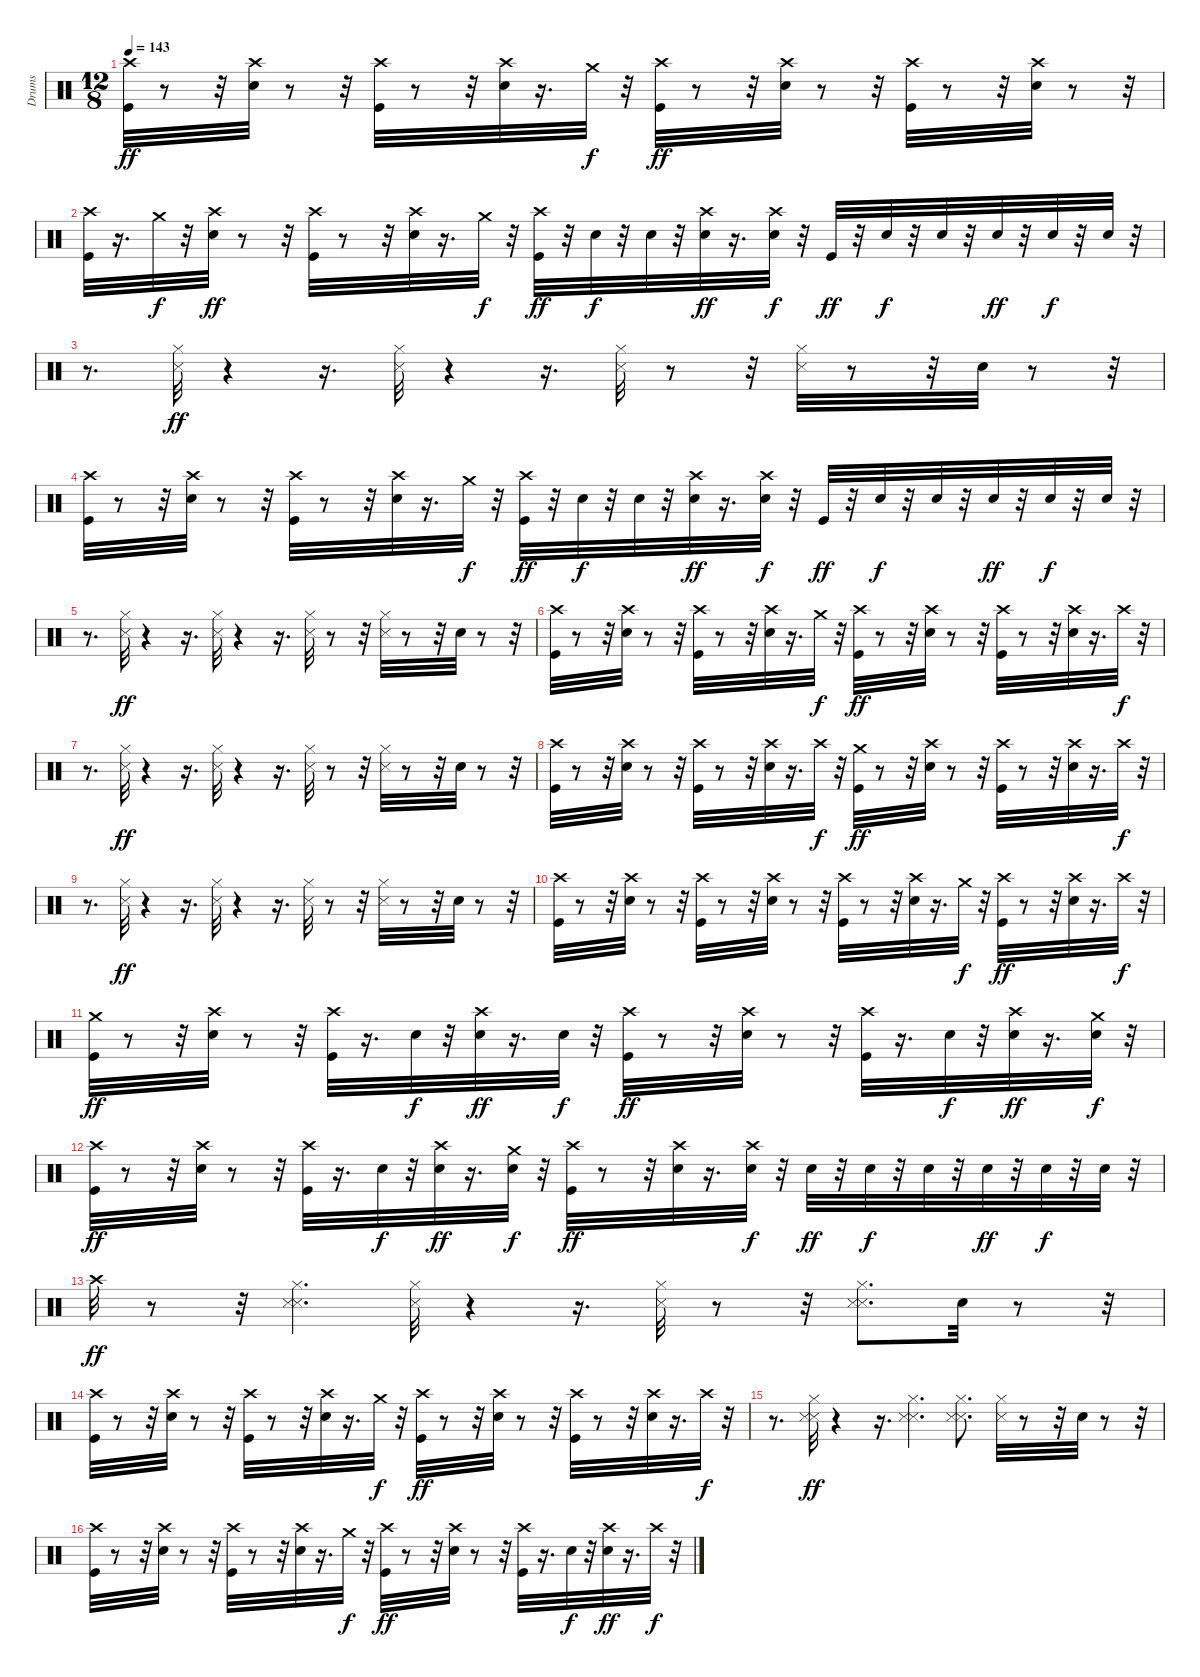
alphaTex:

\track ("Drums" "Drums") {instrument percussion}
\staff {score}
\articulation defaults
\ts (12 8)
\tempo 143
\clef neutral
\ks c
("Crash high (hit)" "Kick (hit)").32{dy ff} r.8 r.32 ("Crash high (hit)" "Snare (hit) 2").32 r.8 r.32 ("Crash high (hit)" "Kick (hit)").32 r.8 r.32 ("Crash high (hit)" "Snare (hit) 2").32 r.16{d} "Crash medium (hit)".32{dy f} r.32 ("Crash high (hit)" "Kick (hit)").32{dy ff} r.8 r.32 ("Crash high (hit)" "Snare (hit) 2").32 r.8 r.32 ("Crash high (hit)" "Kick (hit)").32 r.8 r.32 ("Crash high (hit)" "Snare (hit) 2").32 r.8 r.32 |
("Crash high (hit)" "Kick (hit)").32 r.16{d} "Crash medium (hit)".32{dy f} r.32 ("Crash high (hit)" "Snare (hit) 2").32{dy ff} r.8 r.32 ("Crash high (hit)" "Kick (hit)").32 r.8 r.32 ("Crash high (hit)" "Snare (hit) 2").32 r.16{d} "Crash medium (hit)".32{dy f} r.32 ("Crash high (hit)" "Kick (hit)").32{dy ff} r.32 "Snare (hit) 2".32{dy f} r.32 "Snare (hit) 2".32 r.32 ("Crash high (hit)" "Snare (hit) 2").32{dy ff} r.16{d} ("Snare (hit) 2" "Crash high (hit)").32{dy f} r.32 "Kick (hit)".32{dy ff} r.32 "Snare (hit) 2".32{dy f} r.32 "Snare (hit) 2".32 r.32 "Snare (hit) 2".32{dy ff} r.32 "Snare (hit) 2".32{dy f} r.32 "Snare (hit) 2".32 r.32 |
r.8{d} ("Hi-Hat (closed)" "Metronome (hit)").32{dy ff} r.4 r.16{d} ("Hi-Hat (closed)" "Metronome (hit)").32 r.4 r.16{d} ("Hi-Hat (closed)" "Metronome (hit)").32 r.8 r.32 ("Hi-Hat (closed)" "Metronome (hit)").32 r.8 r.32 "Snare (hit) 2".32 r.8 r.32 |
("Crash high (hit)" "Kick (hit)").32 r.8 r.32 ("Crash high (hit)" "Snare (hit) 2").32 r.8 r.32 ("Crash high (hit)" "Kick (hit)").32 r.8 r.32 ("Crash high (hit)" "Snare (hit) 2").32 r.16{d} "Crash medium (hit)".32{dy f} r.32 ("Crash high (hit)" "Kick (hit)").32{dy ff} r.32 "Snare (hit) 2".32{dy f} r.32 "Snare (hit) 2".32 r.32 ("Crash high (hit)" "Snare (hit) 2").32{dy ff} r.16{d} ("Snare (hit) 2" "Crash high (hit)").32{dy f} r.32 "Kick (hit)".32{dy ff} r.32 "Snare (hit) 2".32{dy f} r.32 "Snare (hit) 2".32 r.32 "Snare (hit) 2".32{dy ff} r.32 "Snare (hit) 2".32{dy f} r.32 "Snare (hit) 2".32 r.32 |
r.8{d} ("Hi-Hat (closed)" "Metronome (hit)").32{dy ff} r.4 r.16{d} ("Hi-Hat (closed)" "Metronome (hit)").32 r.4 r.16{d} ("Hi-Hat (closed)" "Metronome (hit)").32 r.8 r.32 ("Hi-Hat (closed)" "Metronome (hit)").32 r.8 r.32 "Snare (hit) 2".32 r.8 r.32 |
("Crash high (hit)" "Kick (hit)").32 r.8 r.32 ("Crash high (hit)" "Snare (hit) 2").32 r.8 r.32 ("Crash high (hit)" "Kick (hit)").32 r.8 r.32 ("Crash high (hit)" "Snare (hit) 2").32 r.16{d} "Crash medium (hit)".32{dy f} r.32 ("Crash high (hit)" "Kick (hit)").32{dy ff} r.8 r.32 ("Crash high (hit)" "Snare (hit) 2").32 r.8 r.32 ("Crash high (hit)" "Kick (hit)").32 r.8 r.32 ("Crash high (hit)" "Snare (hit) 2").32 r.16{d} "Crash high (hit)".32{dy f} r.32 |
r.8{d} ("Hi-Hat (closed)" "Metronome (hit)").32{dy ff} r.4 r.16{d} ("Hi-Hat (closed)" "Metronome (hit)").32 r.4 r.16{d} ("Metronome (hit)" "Hi-Hat (closed)").32 r.8 r.32 ("Hi-Hat (closed)" "Metronome (hit)").32 r.8 r.32 "Snare (hit) 2".32 r.8 r.32 |
("Crash high (hit)" "Kick (hit)").32 r.8 r.32 ("Crash high (hit)" "Snare (hit) 2").32 r.8 r.32 ("Crash high (hit)" "Kick (hit)").32 r.8 r.32 ("Crash high (hit)" "Snare (hit) 2").32 r.16{d} "Crash high (hit)".32{dy f} r.32 ("Crash medium (hit)" "Kick (hit)").32{dy ff} r.8 r.32 ("Crash high (hit)" "Snare (hit) 2").32 r.8 r.32 ("Crash high (hit)" "Kick (hit)").32 r.8 r.32 ("Crash high (hit)" "Snare (hit) 2").32 r.16{d} "Crash high (hit)".32{dy f} r.32 |
r.8{d} ("Metronome (hit)" "Hi-Hat (closed)").32{dy ff} r.4 r.16{d} ("Hi-Hat (closed)" "Metronome (hit)").32 r.4 r.16{d} ("Metronome (hit)" "Hi-Hat (closed)").32 r.8 r.32 ("Metronome (hit)" "Hi-Hat (closed)").32 r.8 r.32 "Snare (hit) 2".32 r.8 r.32 |
("Crash high (hit)" "Kick (hit)").32 r.8 r.32 ("Crash high (hit)" "Snare (hit) 2").32 r.8 r.32 ("Crash high (hit)" "Kick (hit)").32 r.8 r.32 ("Crash high (hit)" "Snare (hit) 2").32 r.8 r.32 ("Crash high (hit)" "Kick (hit)").32 r.8 r.32 ("Crash high (hit)" "Snare (hit) 2").32 r.16{d} "Crash medium (hit)".32{dy f} r.32 ("Crash high (hit)" "Kick (hit)").32{dy ff} r.8 r.32 ("Crash high (hit)" "Snare (hit) 2").32 r.16{d} "Crash high (hit)".32{dy f} r.32 |
("Crash medium (hit)" "Kick (hit)").32{dy ff} r.8 r.32 ("Crash high (hit)" "Snare (hit) 2").32 r.8 r.32 ("Crash high (hit)" "Kick (hit)").32 r.16{d} "Snare (hit) 2".32{dy f} r.32 ("Crash high (hit)" "Snare (hit) 2").32{dy ff} r.16{d} "Snare (hit) 2".32{dy f} r.32 ("Crash high (hit)" "Kick (hit)").32{dy ff} r.8 r.32 ("Crash high (hit)" "Snare (hit) 2").32 r.8 r.32 ("Crash high (hit)" "Kick (hit)").32 r.16{d} "Snare (hit) 2".32{dy f} r.32 ("Crash high (hit)" "Snare (hit) 2").32{dy ff} r.16{d} ("Crash medium (hit)" "Snare (hit) 2").32{dy f} r.32 |
("Crash high (hit)" "Kick (hit)").32{dy ff} r.8 r.32 ("Crash high (hit)" "Snare (hit) 2").32 r.8 r.32 ("Crash high (hit)" "Kick (hit)").32 r.16{d} "Snare (hit) 2".32{dy f} r.32 ("Crash high (hit)" "Snare (hit) 2").32{dy ff} r.16{d} ("Crash medium (hit)" "Snare (hit) 2").32{dy f} r.32 ("Kick (hit)" "Crash high (hit)").32{dy ff} r.8 r.32 ("Snare (hit) 2" "Crash high (hit)").32 r.16{d} ("Electric Snare (hit)" "Crash high (hit)").32{dy f} r.32 "Snare (hit) 2".32{dy ff} r.32 "Snare (hit) 2".32{dy f} r.32 "Snare (hit) 2".32 r.32 "Snare (hit) 2".32{dy ff} r.32 "Snare (hit) 2".32{dy f} r.32 "Snare (hit) 2".32 r.32 |
"Crash high (hit)".32{dy ff} r.8 r.32 ("Metronome (hit)" "Metronome (hit)" "Hi-Hat (closed)").4{d} ("Metronome (hit)" "Hi-Hat (closed)").32 r.4 r.16{d} ("Metronome (hit)" "Hi-Hat (closed)").32 r.8 r.32 ("Metronome (hit)" "Hi-Hat (closed)" "Metronome (hit)").8{d} "Snare (hit) 2".32 r.8 r.32 |
("Crash high (hit)" "Kick (hit)").32 r.8 r.32 ("Crash high (hit)" "Snare (hit) 2").32 r.8 r.32 ("Crash high (hit)" "Kick (hit)").32 r.8 r.32 ("Crash high (hit)" "Snare (hit) 2").32 r.16{d} "Crash medium (hit)".32{dy f} r.32 ("Crash high (hit)" "Kick (hit)").32{dy ff} r.8 r.32 ("Crash high (hit)" "Snare (hit) 2").32 r.8 r.32 ("Crash high (hit)" "Kick (hit)").32 r.8 r.32 ("Crash high (hit)" "Snare (hit) 2").32 r.16{d} "Crash high (hit)".32{dy f} r.32 |
r.8{d} ("Metronome (hit)" "Hi-Hat (closed)" "Metronome (hit)").32{dy ff} r.4 r.16{d} ("Metronome (hit)" "Hi-Hat (closed)" "Metronome (hit)").4{d} ("Metronome (hit)" "Metronome (hit)" "Hi-Hat (closed)").8{d} ("Metronome (hit)" "Hi-Hat (closed)").32 r.8 r.32 "Snare (hit) 2".32 r.8 r.32 |
("Crash high (hit)" "Kick (hit)").32 r.8 r.32 ("Crash high (hit)" "Snare (hit) 2").32 r.8 r.32 ("Crash high (hit)" "Kick (hit)").32 r.8 r.32 ("Crash high (hit)" "Snare (hit) 2").32 r.16{d} "Crash medium (hit)".32{dy f} r.32 ("Crash high (hit)" "Kick (hit)").32{dy ff} r.8 r.32 ("Crash high (hit)" "Snare (hit) 2").32 r.8 r.32 ("Crash high (hit)" "Kick (hit)").32 r.16{d} "Snare (hit) 2".32{dy f} r.32 ("Crash high (hit)" "Snare (hit) 2").32{dy ff} r.16{d} "Crash high (hit)".32{dy f} r.32
